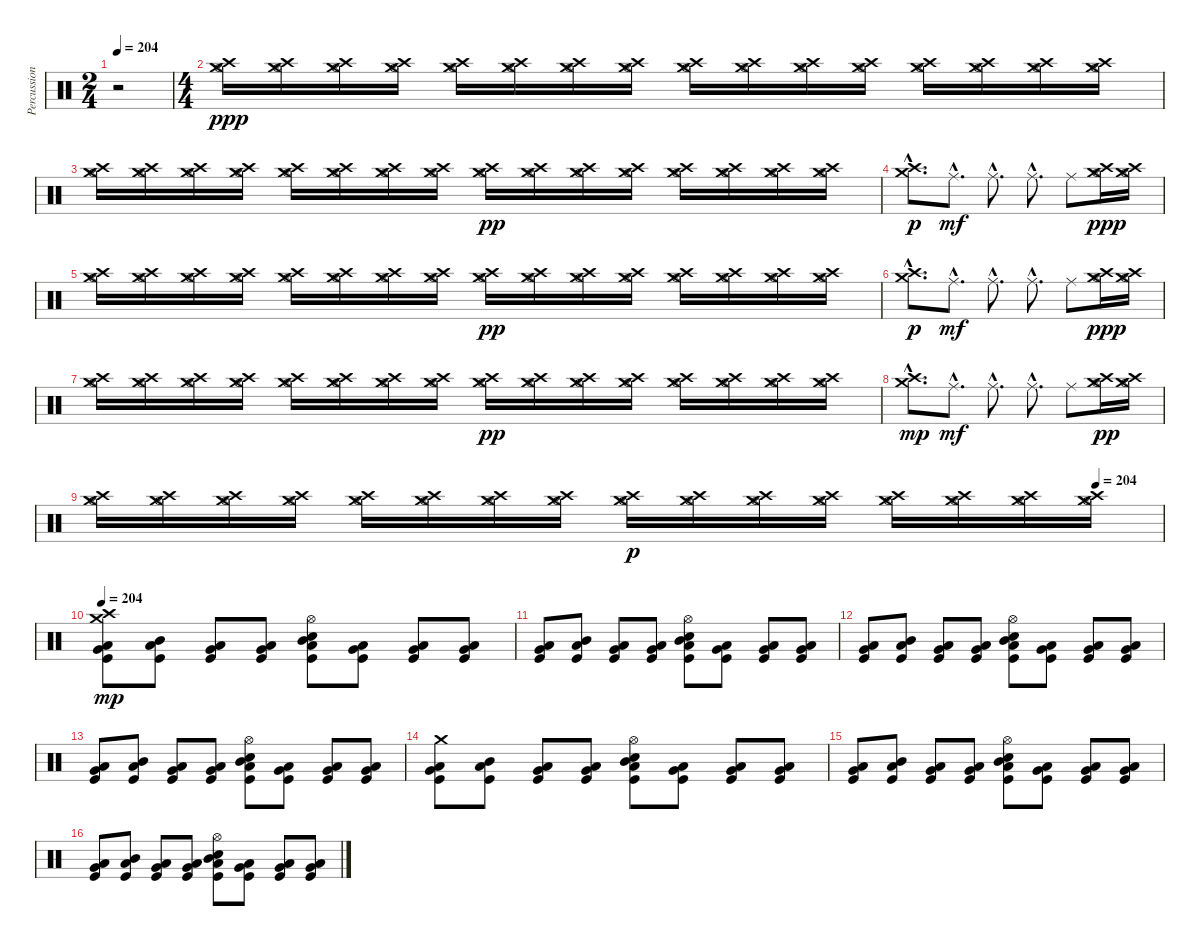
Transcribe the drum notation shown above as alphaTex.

\track ("Percussions" "Percussion") {instrument percussion}
\staff {score}
\articulation defaults
\ts (2 4)
\tempo 204
\tempo 102
\tempo 204
\clef neutral
\ks c
r.2{dy ppp} |
\ts (4 4)
("Hi-Hat (open)" "Crash medium (hit)" "Crash high (hit)").16 ("Hi-Hat (open)" "Crash medium (hit)" "Crash high (hit)").16 ("Hi-Hat (open)" "Crash medium (hit)" "Crash high (hit)").16 ("Hi-Hat (open)" "Crash medium (hit)" "Crash high (hit)").16 ("Hi-Hat (open)" "Crash medium (hit)" "Crash high (hit)").16 ("Hi-Hat (open)" "Crash medium (hit)" "Crash high (hit)").16 ("Hi-Hat (open)" "Crash medium (hit)" "Crash high (hit)").16 ("Hi-Hat (open)" "Crash medium (hit)" "Crash high (hit)").16 ("Hi-Hat (open)" "Crash medium (hit)" "Crash high (hit)").16 ("Hi-Hat (open)" "Crash medium (hit)" "Crash high (hit)").16 ("Hi-Hat (open)" "Crash medium (hit)" "Crash high (hit)").16 ("Hi-Hat (open)" "Crash medium (hit)" "Crash high (hit)").16 ("Hi-Hat (open)" "Crash medium (hit)" "Crash high (hit)").16 ("Hi-Hat (open)" "Crash medium (hit)" "Crash high (hit)").16 ("Hi-Hat (open)" "Crash medium (hit)" "Crash high (hit)").16 ("Hi-Hat (open)" "Crash medium (hit)" "Crash high (hit)").16 |
("Hi-Hat (open)" "Crash medium (hit)" "Crash high (hit)").16 ("Hi-Hat (open)" "Crash medium (hit)" "Crash high (hit)").16 ("Hi-Hat (open)" "Crash medium (hit)" "Crash high (hit)").16 ("Hi-Hat (open)" "Crash medium (hit)" "Crash high (hit)").16 ("Hi-Hat (open)" "Crash medium (hit)" "Crash high (hit)").16 ("Hi-Hat (open)" "Crash medium (hit)" "Crash high (hit)").16 ("Hi-Hat (open)" "Crash medium (hit)" "Crash high (hit)").16 ("Hi-Hat (open)" "Crash medium (hit)" "Crash high (hit)").16 ("Hi-Hat (open)" "Crash medium (hit)" "Crash high (hit)").16{dy pp} ("Hi-Hat (open)" "Crash medium (hit)" "Crash high (hit)").16 ("Hi-Hat (open)" "Crash medium (hit)" "Crash high (hit)").16 ("Hi-Hat (open)" "Crash medium (hit)" "Crash high (hit)").16 ("Hi-Hat (open)" "Crash medium (hit)" "Crash high (hit)").16 ("Hi-Hat (open)" "Crash medium (hit)" "Crash high (hit)").16 ("Hi-Hat (open)" "Crash medium (hit)" "Crash high (hit)").16 ("Hi-Hat (open)" "Crash medium (hit)" "Crash high (hit)").16 |
("Crash high (hit)"{hac} "Crash medium (hit)"{hac}).8{d dy p} "Ride (middle)"{hac}.8{d dy mf} "Ride (middle)"{hac}.8{d} "Ride (middle)"{hac}.8{d} "Ride (middle)".8 ("Hi-Hat (open)" "Crash medium (hit)" "Crash high (hit)").16{dy ppp} ("Hi-Hat (open)" "Crash medium (hit)" "Crash high (hit)").16 |
("Hi-Hat (open)" "Crash medium (hit)" "Crash high (hit)").16 ("Hi-Hat (open)" "Crash medium (hit)" "Crash high (hit)").16 ("Hi-Hat (open)" "Crash medium (hit)" "Crash high (hit)").16 ("Hi-Hat (open)" "Crash medium (hit)" "Crash high (hit)").16 ("Hi-Hat (open)" "Crash medium (hit)" "Crash high (hit)").16 ("Hi-Hat (open)" "Crash medium (hit)" "Crash high (hit)").16 ("Hi-Hat (open)" "Crash medium (hit)" "Crash high (hit)").16 ("Hi-Hat (open)" "Crash medium (hit)" "Crash high (hit)").16 ("Hi-Hat (open)" "Crash medium (hit)" "Crash high (hit)").16{dy pp} ("Hi-Hat (open)" "Crash medium (hit)" "Crash high (hit)").16 ("Hi-Hat (open)" "Crash medium (hit)" "Crash high (hit)").16 ("Hi-Hat (open)" "Crash medium (hit)" "Crash high (hit)").16 ("Hi-Hat (open)" "Crash medium (hit)" "Crash high (hit)").16 ("Hi-Hat (open)" "Crash medium (hit)" "Crash high (hit)").16 ("Hi-Hat (open)" "Crash medium (hit)" "Crash high (hit)").16 ("Hi-Hat (open)" "Crash medium (hit)" "Crash high (hit)").16 |
("Crash high (hit)"{hac} "Crash medium (hit)"{hac}).8{d dy p} "Ride (middle)"{hac}.8{d dy mf} "Ride (middle)"{hac}.8{d} "Ride (middle)"{hac}.8{d} "Ride (middle)".8 ("Hi-Hat (open)" "Crash medium (hit)" "Crash high (hit)").16{dy ppp} ("Hi-Hat (open)" "Crash medium (hit)" "Crash high (hit)").16 |
("Hi-Hat (open)" "Crash medium (hit)" "Crash high (hit)").16 ("Hi-Hat (open)" "Crash medium (hit)" "Crash high (hit)").16 ("Hi-Hat (open)" "Crash medium (hit)" "Crash high (hit)").16 ("Hi-Hat (open)" "Crash medium (hit)" "Crash high (hit)").16 ("Hi-Hat (open)" "Crash medium (hit)" "Crash high (hit)").16 ("Hi-Hat (open)" "Crash medium (hit)" "Crash high (hit)").16 ("Hi-Hat (open)" "Crash medium (hit)" "Crash high (hit)").16 ("Hi-Hat (open)" "Crash medium (hit)" "Crash high (hit)").16 ("Hi-Hat (open)" "Crash medium (hit)" "Crash high (hit)").16{dy pp} ("Hi-Hat (open)" "Crash medium (hit)" "Crash high (hit)").16 ("Hi-Hat (open)" "Crash medium (hit)" "Crash high (hit)").16 ("Hi-Hat (open)" "Crash medium (hit)" "Crash high (hit)").16 ("Hi-Hat (open)" "Crash medium (hit)" "Crash high (hit)").16 ("Hi-Hat (open)" "Crash medium (hit)" "Crash high (hit)").16 ("Hi-Hat (open)" "Crash medium (hit)" "Crash high (hit)").16 ("Hi-Hat (open)" "Crash medium (hit)" "Crash high (hit)").16 |
("Crash high (hit)"{hac} "Crash medium (hit)"{hac}).8{d dy mp} "Ride (middle)"{hac}.8{d dy mf} "Ride (middle)"{hac}.8{d} "Ride (middle)"{hac}.8{d} "Ride (middle)".8 ("Hi-Hat (open)" "Crash medium (hit)" "Crash high (hit)").16{dy pp} ("Hi-Hat (open)" "Crash medium (hit)" "Crash high (hit)").16 |
\tempo (204 0.9375)
("Hi-Hat (open)" "Crash medium (hit)" "Crash high (hit)").16 ("Hi-Hat (open)" "Crash medium (hit)" "Crash high (hit)").16 ("Hi-Hat (open)" "Crash medium (hit)" "Crash high (hit)").16 ("Hi-Hat (open)" "Crash medium (hit)" "Crash high (hit)").16 ("Hi-Hat (open)" "Crash medium (hit)" "Crash high (hit)").16 ("Hi-Hat (open)" "Crash medium (hit)" "Crash high (hit)").16 ("Hi-Hat (open)" "Crash medium (hit)" "Crash high (hit)").16 ("Hi-Hat (open)" "Crash medium (hit)" "Crash high (hit)").16 ("Hi-Hat (open)" "Crash medium (hit)" "Crash high (hit)").16{dy p} ("Hi-Hat (open)" "Crash medium (hit)" "Crash high (hit)").16 ("Hi-Hat (open)" "Crash medium (hit)" "Crash high (hit)").16 ("Hi-Hat (open)" "Crash medium (hit)" "Crash high (hit)").16 ("Hi-Hat (open)" "Crash medium (hit)" "Crash high (hit)").16 ("Hi-Hat (open)" "Crash medium (hit)" "Crash high (hit)").16 ("Hi-Hat (open)" "Crash medium (hit)" "Crash high (hit)").16 ("Hi-Hat (open)" "Crash medium (hit)" "Crash high (hit)").16 |
\tempo 204
("Kick (hit)" "Very Low Tom (hit)" "Low Tom (hit)" "Crash medium (hit)" "Crash high (hit)").8{dy mp} ("Kick (hit)" "Low Tom (hit)" "Mid Tom (hit)").8 ("Kick (hit)" "Very Low Tom (hit)" "Low Tom (hit)").8 ("Kick (hit)" "Low Floor Tom (hit)" "Very Low Tom (hit)").8 ("Kick (hit)" "Electric Snare (hit)" "Low Tom (hit)" "Mid Tom (hit)" "Hi-Hat (open)").8 ("Kick (hit)" "Very Low Tom (hit)" "Low Tom (hit)").8 ("Kick (hit)" "Low Floor Tom (hit)" "Very Low Tom (hit)").8 ("Kick (hit)" "Very Low Tom (hit)" "Low Tom (hit)").8 |
("Kick (hit)" "Very Low Tom (hit)" "Low Tom (hit)").8 ("Kick (hit)" "Low Tom (hit)" "Mid Tom (hit)").8 ("Kick (hit)" "Very Low Tom (hit)" "Low Tom (hit)").8 ("Kick (hit)" "Low Floor Tom (hit)" "Very Low Tom (hit)").8 ("Kick (hit)" "Electric Snare (hit)" "Low Tom (hit)" "Mid Tom (hit)" "Hi-Hat (open)").8 ("Kick (hit)" "Very Low Tom (hit)" "Low Tom (hit)").8 ("Kick (hit)" "Low Floor Tom (hit)" "Very Low Tom (hit)").8 ("Kick (hit)" "Very Low Tom (hit)" "Low Tom (hit)").8 |
("Kick (hit)" "Very Low Tom (hit)" "Low Tom (hit)").8 ("Kick (hit)" "Low Tom (hit)" "Mid Tom (hit)").8 ("Kick (hit)" "Very Low Tom (hit)" "Low Tom (hit)").8 ("Kick (hit)" "Low Floor Tom (hit)" "Very Low Tom (hit)").8 ("Kick (hit)" "Electric Snare (hit)" "Low Tom (hit)" "Mid Tom (hit)" "Hi-Hat (open)").8 ("Kick (hit)" "Very Low Tom (hit)" "Low Tom (hit)").8 ("Kick (hit)" "Low Floor Tom (hit)" "Very Low Tom (hit)").8 ("Kick (hit)" "Very Low Tom (hit)" "Low Tom (hit)").8 |
("Kick (hit)" "Very Low Tom (hit)" "Low Tom (hit)").8 ("Kick (hit)" "Low Tom (hit)" "Mid Tom (hit)").8 ("Kick (hit)" "Very Low Tom (hit)" "Low Tom (hit)").8 ("Kick (hit)" "Low Floor Tom (hit)" "Very Low Tom (hit)").8 ("Kick (hit)" "Electric Snare (hit)" "Low Tom (hit)" "Mid Tom (hit)" "Hi-Hat (open)").8 ("Kick (hit)" "Very Low Tom (hit)" "Low Tom (hit)").8 ("Kick (hit)" "Low Floor Tom (hit)" "Very Low Tom (hit)").8 ("Kick (hit)" "Very Low Tom (hit)" "Low Tom (hit)").8 |
("Kick (hit)" "Very Low Tom (hit)" "Low Tom (hit)" "Crash medium (hit)").8 ("Kick (hit)" "Low Tom (hit)" "Mid Tom (hit)").8 ("Kick (hit)" "Very Low Tom (hit)" "Low Tom (hit)").8 ("Kick (hit)" "Low Floor Tom (hit)" "Very Low Tom (hit)").8 ("Kick (hit)" "Electric Snare (hit)" "Low Tom (hit)" "Mid Tom (hit)" "Hi-Hat (open)").8 ("Kick (hit)" "Very Low Tom (hit)" "Low Tom (hit)").8 ("Kick (hit)" "Low Floor Tom (hit)" "Very Low Tom (hit)").8 ("Kick (hit)" "Very Low Tom (hit)" "Low Tom (hit)").8 |
("Kick (hit)" "Very Low Tom (hit)" "Low Tom (hit)").8 ("Kick (hit)" "Low Tom (hit)" "Mid Tom (hit)").8 ("Kick (hit)" "Very Low Tom (hit)" "Low Tom (hit)").8 ("Kick (hit)" "Low Floor Tom (hit)" "Very Low Tom (hit)").8 ("Kick (hit)" "Electric Snare (hit)" "Low Tom (hit)" "Mid Tom (hit)" "Hi-Hat (open)").8 ("Kick (hit)" "Very Low Tom (hit)" "Low Tom (hit)").8 ("Kick (hit)" "Low Floor Tom (hit)" "Very Low Tom (hit)").8 ("Kick (hit)" "Very Low Tom (hit)" "Low Tom (hit)").8 |
("Kick (hit)" "Very Low Tom (hit)" "Low Tom (hit)").8 ("Kick (hit)" "Low Tom (hit)" "Mid Tom (hit)").8 ("Kick (hit)" "Very Low Tom (hit)" "Low Tom (hit)").8 ("Kick (hit)" "Low Floor Tom (hit)" "Very Low Tom (hit)").8 ("Kick (hit)" "Electric Snare (hit)" "Low Tom (hit)" "Mid Tom (hit)" "Hi-Hat (open)").8 ("Kick (hit)" "Very Low Tom (hit)" "Low Tom (hit)").8 ("Kick (hit)" "Low Floor Tom (hit)" "Very Low Tom (hit)").8 ("Kick (hit)" "Very Low Tom (hit)" "Low Tom (hit)").8
